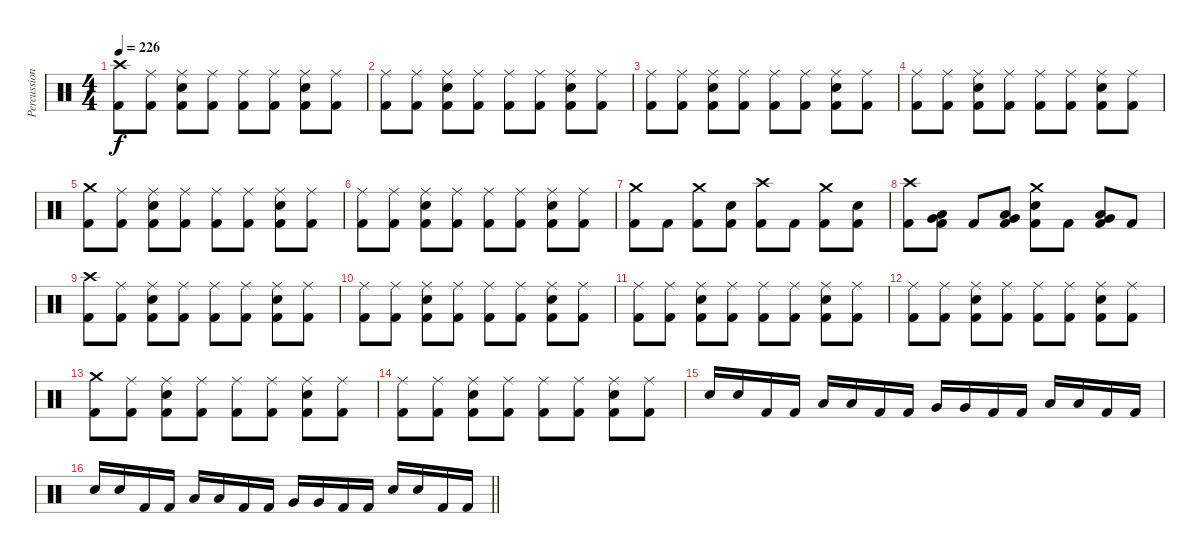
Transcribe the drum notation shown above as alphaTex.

\track ("Percussion" "Percussion") {instrument percussion}
\staff {score}
\articulation defaults
\ts (4 4)
\section ("" "")
\tempo 226
\clef neutral
\ks c
("Crash high (hit)" "Kick (hit) 2").8{dy f} ("Ride (middle)" "Kick (hit) 2").8 ("Ride (middle)" "Snare (hit) 2" "Kick (hit) 2").8 ("Ride (middle)" "Kick (hit) 2").8 ("Ride (middle)" "Kick (hit) 2").8 ("Ride (middle)" "Kick (hit) 2").8 ("Ride (middle)" "Snare (hit) 2" "Kick (hit) 2").8 ("Ride (middle)" "Kick (hit) 2").8 |
("Ride (middle)" "Kick (hit) 2").8 ("Ride (middle)" "Kick (hit) 2").8 ("Ride (middle)" "Snare (hit) 2" "Kick (hit) 2").8 ("Ride (middle)" "Kick (hit) 2").8 ("Ride (middle)" "Kick (hit) 2").8 ("Ride (middle)" "Kick (hit) 2").8 ("Ride (middle)" "Snare (hit) 2" "Kick (hit) 2").8 ("Ride (middle)" "Kick (hit) 2").8 |
("Ride (middle)" "Kick (hit) 2").8 ("Ride (middle)" "Kick (hit) 2").8 ("Ride (middle)" "Snare (hit) 2" "Kick (hit) 2").8 ("Ride (middle)" "Kick (hit) 2").8 ("Ride (middle)" "Kick (hit) 2").8 ("Ride (middle)" "Kick (hit) 2").8 ("Ride (middle)" "Snare (hit) 2" "Kick (hit) 2").8 ("Ride (middle)" "Kick (hit) 2").8 |
("Ride (middle)" "Kick (hit) 2").8 ("Ride (middle)" "Kick (hit) 2").8 ("Ride (middle)" "Snare (hit) 2" "Kick (hit) 2").8 ("Ride (middle)" "Kick (hit) 2").8 ("Ride (middle)" "Kick (hit) 2").8 ("Ride (middle)" "Kick (hit) 2").8 ("Ride (middle)" "Snare (hit) 2" "Kick (hit) 2").8 ("Ride (middle)" "Kick (hit) 2").8 |
("Crash medium (hit)" "Kick (hit) 2").8 ("Ride (middle)" "Kick (hit) 2").8 ("Ride (middle)" "Snare (hit) 2" "Kick (hit) 2").8 ("Ride (middle)" "Kick (hit) 2").8 ("Ride (middle)" "Kick (hit) 2").8 ("Ride (middle)" "Kick (hit) 2").8 ("Ride (middle)" "Snare (hit) 2" "Kick (hit) 2").8 ("Ride (middle)" "Kick (hit) 2").8 |
("Ride (middle)" "Kick (hit) 2").8 ("Ride (middle)" "Kick (hit) 2").8 ("Ride (middle)" "Snare (hit) 2" "Kick (hit) 2").8 ("Ride (middle)" "Kick (hit) 2").8 ("Ride (middle)" "Kick (hit) 2").8 ("Ride (middle)" "Kick (hit) 2").8 ("Ride (middle)" "Snare (hit) 2" "Kick (hit) 2").8 ("Ride (middle)" "Kick (hit) 2").8 |
("Crash medium (hit)" "Kick (hit) 2").8 "Kick (hit) 2".8 ("Crash medium (hit)" "Kick (hit) 2").8 ("Snare (hit) 2" "Kick (hit) 2").8 ("Crash high (hit)" "Kick (hit) 2").8 "Kick (hit) 2".8 ("Crash medium (hit)" "Kick (hit) 2").8 ("Snare (hit) 2" "Kick (hit) 2").8 |
("Crash high (hit)" "Kick (hit) 2").8 ("Very Low Tom (hit)" "Low Floor Tom (hit)" "Kick (hit) 2").8 "Kick (hit) 2".8 ("Very Low Tom (hit)" "Low Tom (hit)" "Kick (hit) 2").8 ("Crash medium (hit)" "Snare (hit) 2" "Kick (hit) 2").8 "Kick (hit) 2".8 ("Low Floor Tom (hit)" "Very Low Tom (hit)" "Kick (hit) 2").8 "Kick (hit) 2".8 |
("Crash high (hit)" "Kick (hit) 2").8 ("Ride (middle)" "Kick (hit) 2").8 ("Ride (middle)" "Snare (hit) 2" "Kick (hit) 2").8 ("Ride (middle)" "Kick (hit) 2").8 ("Ride (middle)" "Kick (hit) 2").8 ("Ride (middle)" "Kick (hit) 2").8 ("Ride (middle)" "Snare (hit) 2" "Kick (hit) 2").8 ("Ride (middle)" "Kick (hit) 2").8 |
("Ride (middle)" "Kick (hit) 2").8 ("Ride (middle)" "Kick (hit) 2").8 ("Ride (middle)" "Snare (hit) 2" "Kick (hit) 2").8 ("Ride (middle)" "Kick (hit) 2").8 ("Ride (middle)" "Kick (hit) 2").8 ("Ride (middle)" "Kick (hit) 2").8 ("Ride (middle)" "Snare (hit) 2" "Kick (hit) 2").8 ("Ride (middle)" "Kick (hit) 2").8 |
("Ride (middle)" "Kick (hit) 2").8 ("Ride (middle)" "Kick (hit) 2").8 ("Ride (middle)" "Snare (hit) 2" "Kick (hit) 2").8 ("Ride (middle)" "Kick (hit) 2").8 ("Ride (middle)" "Kick (hit) 2").8 ("Ride (middle)" "Kick (hit) 2").8 ("Ride (middle)" "Snare (hit) 2" "Kick (hit) 2").8 ("Ride (middle)" "Kick (hit) 2").8 |
("Ride (middle)" "Kick (hit) 2").8 ("Ride (middle)" "Kick (hit) 2").8 ("Ride (middle)" "Snare (hit) 2" "Kick (hit) 2").8 ("Ride (middle)" "Kick (hit) 2").8 ("Ride (middle)" "Kick (hit) 2").8 ("Ride (middle)" "Kick (hit) 2").8 ("Ride (middle)" "Snare (hit) 2" "Kick (hit) 2").8 ("Ride (middle)" "Kick (hit) 2").8 |
("Crash medium (hit)" "Kick (hit) 2").8 ("Ride (middle)" "Kick (hit) 2").8 ("Ride (middle)" "Snare (hit) 2" "Kick (hit) 2").8 ("Ride (middle)" "Kick (hit) 2").8 ("Ride (middle)" "Kick (hit) 2").8 ("Ride (middle)" "Kick (hit) 2").8 ("Ride (middle)" "Snare (hit) 2" "Kick (hit) 2").8 ("Ride (middle)" "Kick (hit) 2").8 |
("Ride (middle)" "Kick (hit) 2").8 ("Ride (middle)" "Kick (hit) 2").8 ("Ride (middle)" "Snare (hit) 2" "Kick (hit) 2").8 ("Ride (middle)" "Kick (hit) 2").8 ("Ride (middle)" "Kick (hit) 2").8 ("Ride (middle)" "Kick (hit) 2").8 ("Ride (middle)" "Snare (hit) 2" "Kick (hit) 2").8 ("Ride (middle)" "Kick (hit) 2").8 |
"Snare (hit) 2".16 "Snare (hit) 2".16 "Kick (hit) 2".16 "Kick (hit) 2".16 "Low Tom (hit)".16 "Low Tom (hit)".16 "Kick (hit) 2".16 "Kick (hit) 2".16 "Very Low Tom (hit)".16 "Very Low Tom (hit)".16 "Kick (hit) 2".16 "Kick (hit) 2".16 "Low Floor Tom (hit)".16 "Low Floor Tom (hit)".16 "Kick (hit) 2".16 "Kick (hit) 2".16 |
\barLineRight lightlight "Snare (hit) 2".16 "Snare (hit) 2".16 "Kick (hit) 2".16 "Kick (hit) 2".16 "Low Tom (hit)".16 "Low Tom (hit)".16 "Kick (hit) 2".16 "Kick (hit) 2".16 "Very Low Tom (hit)".16 "Very Low Tom (hit)".16 "Kick (hit) 2".16 "Kick (hit) 2".16 "Snare (hit) 2".16 "Snare (hit) 2".16 "Kick (hit) 2".16 "Kick (hit) 2".16
